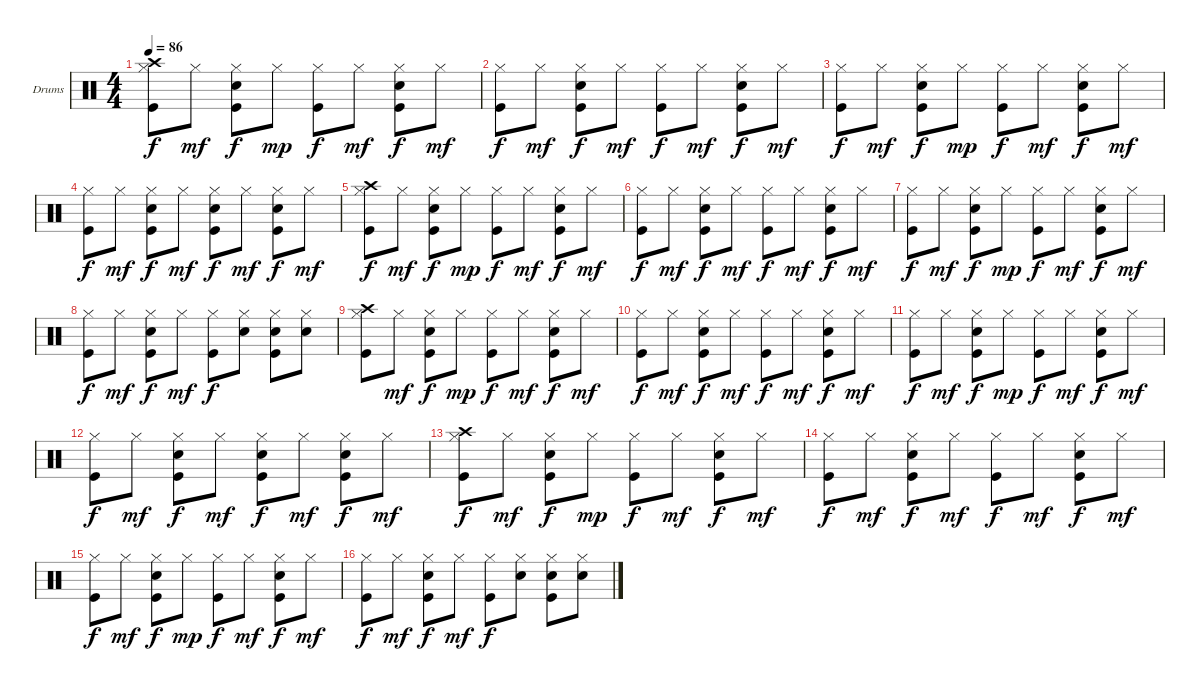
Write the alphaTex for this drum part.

\bracketExtendMode groupsimilarinstruments
\firstSystemTrackNameOrientation horizontal
\otherSystemsTrackNameOrientation horizontal
\track ("Ударные" "Drums") {instrument percussion}
\staff {score}
\articulation defaults
\ts (4 4)
\tempo 86
\clef neutral
\ks c
("Hi-Hat (closed)" "Crash high (hit)" "Kick (hit)").8{dy f} "Hi-Hat (closed)".8{dy mf} ("Snare (hit) 2" "Hi-Hat (closed)" "Kick (hit)").8{dy f} "Hi-Hat (closed)".8{dy mp} ("Hi-Hat (closed)" "Kick (hit)").8{dy f} "Hi-Hat (closed)".8{dy mf} ("Snare (hit) 2" "Hi-Hat (closed)" "Kick (hit)").8{dy f} "Hi-Hat (closed)".8{dy mf} |
("Hi-Hat (closed)" "Kick (hit)").8{dy f} "Hi-Hat (closed)".8{dy mf} ("Snare (hit) 2" "Hi-Hat (closed)" "Kick (hit)").8{dy f} "Hi-Hat (closed)".8{dy mf} ("Hi-Hat (closed)" "Kick (hit)").8{dy f} "Hi-Hat (closed)".8{dy mf} ("Snare (hit) 2" "Hi-Hat (closed)" "Kick (hit)").8{dy f} "Hi-Hat (closed)".8{dy mf} |
("Hi-Hat (closed)" "Kick (hit)").8{dy f} "Hi-Hat (closed)".8{dy mf} ("Snare (hit) 2" "Hi-Hat (closed)" "Kick (hit)").8{dy f} "Hi-Hat (closed)".8{dy mp} ("Hi-Hat (closed)" "Kick (hit)").8{dy f} "Hi-Hat (closed)".8{dy mf} ("Snare (hit) 2" "Hi-Hat (closed)" "Kick (hit)").8{dy f} "Hi-Hat (closed)".8{dy mf} |
("Hi-Hat (closed)" "Kick (hit)").8{dy f} "Hi-Hat (closed)".8{dy mf} ("Snare (hit) 2" "Hi-Hat (closed)" "Kick (hit)").8{dy f} "Hi-Hat (closed)".8{dy mf} ("Hi-Hat (closed)" "Kick (hit)" "Snare (hit) 2").8{dy f} "Hi-Hat (closed)".8{dy mf} ("Snare (hit) 2" "Hi-Hat (closed)" "Kick (hit)").8{dy f} "Hi-Hat (closed)".8{dy mf} |
("Hi-Hat (closed)" "Crash high (hit)" "Kick (hit)").8{dy f} "Hi-Hat (closed)".8{dy mf} ("Snare (hit) 2" "Hi-Hat (closed)" "Kick (hit)").8{dy f} "Hi-Hat (closed)".8{dy mp} ("Hi-Hat (closed)" "Kick (hit)").8{dy f} "Hi-Hat (closed)".8{dy mf} ("Snare (hit) 2" "Hi-Hat (closed)" "Kick (hit)").8{dy f} "Hi-Hat (closed)".8{dy mf} |
("Hi-Hat (closed)" "Kick (hit)").8{dy f} "Hi-Hat (closed)".8{dy mf} ("Snare (hit) 2" "Hi-Hat (closed)" "Kick (hit)").8{dy f} "Hi-Hat (closed)".8{dy mf} ("Hi-Hat (closed)" "Kick (hit)").8{dy f} "Hi-Hat (closed)".8{dy mf} ("Snare (hit) 2" "Hi-Hat (closed)" "Kick (hit)").8{dy f} "Hi-Hat (closed)".8{dy mf} |
("Hi-Hat (closed)" "Kick (hit)").8{dy f} "Hi-Hat (closed)".8{dy mf} ("Snare (hit) 2" "Hi-Hat (closed)" "Kick (hit)").8{dy f} "Hi-Hat (closed)".8{dy mp} ("Hi-Hat (closed)" "Kick (hit)").8{dy f} "Hi-Hat (closed)".8{dy mf} ("Snare (hit) 2" "Hi-Hat (closed)" "Kick (hit)").8{dy f} "Hi-Hat (closed)".8{dy mf} |
("Hi-Hat (closed)" "Kick (hit)").8{dy f} "Hi-Hat (closed)".8{dy mf} ("Snare (hit) 2" "Hi-Hat (closed)" "Kick (hit)").8{dy f} "Hi-Hat (closed)".8{dy mf} ("Hi-Hat (closed)" "Kick (hit)").8{dy f} ("Snare (hit) 2" "Hi-Hat (closed)").8 ("Snare (hit) 2" "Hi-Hat (closed)" "Kick (hit)").8 ("Snare (hit) 2" "Hi-Hat (closed)").8 |
("Hi-Hat (closed)" "Crash high (hit)" "Kick (hit)").8 "Hi-Hat (closed)".8{dy mf} ("Snare (hit) 2" "Hi-Hat (closed)" "Kick (hit)").8{dy f} "Hi-Hat (closed)".8{dy mp} ("Hi-Hat (closed)" "Kick (hit)").8{dy f} "Hi-Hat (closed)".8{dy mf} ("Snare (hit) 2" "Hi-Hat (closed)" "Kick (hit)").8{dy f} "Hi-Hat (closed)".8{dy mf} |
("Hi-Hat (closed)" "Kick (hit)").8{dy f} "Hi-Hat (closed)".8{dy mf} ("Snare (hit) 2" "Hi-Hat (closed)" "Kick (hit)").8{dy f} "Hi-Hat (closed)".8{dy mf} ("Hi-Hat (closed)" "Kick (hit)").8{dy f} "Hi-Hat (closed)".8{dy mf} ("Snare (hit) 2" "Hi-Hat (closed)" "Kick (hit)").8{dy f} "Hi-Hat (closed)".8{dy mf} |
("Hi-Hat (closed)" "Kick (hit)").8{dy f} "Hi-Hat (closed)".8{dy mf} ("Snare (hit) 2" "Hi-Hat (closed)" "Kick (hit)").8{dy f} "Hi-Hat (closed)".8{dy mp} ("Hi-Hat (closed)" "Kick (hit)").8{dy f} "Hi-Hat (closed)".8{dy mf} ("Snare (hit) 2" "Hi-Hat (closed)" "Kick (hit)").8{dy f} "Hi-Hat (closed)".8{dy mf} |
("Hi-Hat (closed)" "Kick (hit)").8{dy f} "Hi-Hat (closed)".8{dy mf} ("Snare (hit) 2" "Hi-Hat (closed)" "Kick (hit)").8{dy f} "Hi-Hat (closed)".8{dy mf} ("Hi-Hat (closed)" "Kick (hit)" "Snare (hit) 2").8{dy f} "Hi-Hat (closed)".8{dy mf} ("Snare (hit) 2" "Hi-Hat (closed)" "Kick (hit)").8{dy f} "Hi-Hat (closed)".8{dy mf} |
("Hi-Hat (closed)" "Crash high (hit)" "Kick (hit)").8{dy f} "Hi-Hat (closed)".8{dy mf} ("Snare (hit) 2" "Hi-Hat (closed)" "Kick (hit)").8{dy f} "Hi-Hat (closed)".8{dy mp} ("Hi-Hat (closed)" "Kick (hit)").8{dy f} "Hi-Hat (closed)".8{dy mf} ("Snare (hit) 2" "Hi-Hat (closed)" "Kick (hit)").8{dy f} "Hi-Hat (closed)".8{dy mf} |
("Hi-Hat (closed)" "Kick (hit)").8{dy f} "Hi-Hat (closed)".8{dy mf} ("Snare (hit) 2" "Hi-Hat (closed)" "Kick (hit)").8{dy f} "Hi-Hat (closed)".8{dy mf} ("Hi-Hat (closed)" "Kick (hit)").8{dy f} "Hi-Hat (closed)".8{dy mf} ("Snare (hit) 2" "Hi-Hat (closed)" "Kick (hit)").8{dy f} "Hi-Hat (closed)".8{dy mf} |
("Hi-Hat (closed)" "Kick (hit)").8{dy f} "Hi-Hat (closed)".8{dy mf} ("Snare (hit) 2" "Hi-Hat (closed)" "Kick (hit)").8{dy f} "Hi-Hat (closed)".8{dy mp} ("Hi-Hat (closed)" "Kick (hit)").8{dy f} "Hi-Hat (closed)".8{dy mf} ("Snare (hit) 2" "Hi-Hat (closed)" "Kick (hit)").8{dy f} "Hi-Hat (closed)".8{dy mf} |
("Hi-Hat (closed)" "Kick (hit)").8{dy f} "Hi-Hat (closed)".8{dy mf} ("Snare (hit) 2" "Hi-Hat (closed)" "Kick (hit)").8{dy f} "Hi-Hat (closed)".8{dy mf} ("Hi-Hat (closed)" "Kick (hit)").8{dy f} ("Snare (hit) 2" "Hi-Hat (closed)").8 ("Snare (hit) 2" "Hi-Hat (closed)" "Kick (hit)").8 ("Snare (hit) 2" "Hi-Hat (closed)").8
